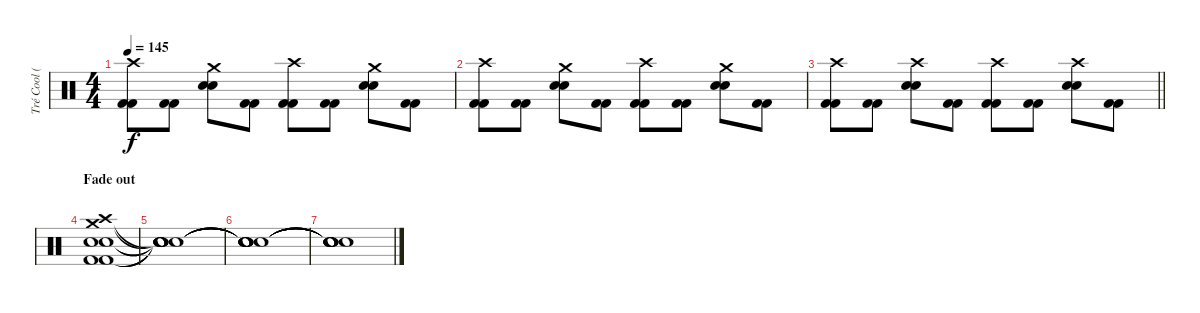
\track ("Tré Cool (Drums)" "Tré Cool (") {instrument percussion}
\staff {score}
\articulation defaults
\ts (4 4)
\tempo 145
\clef neutral
\ks c
("Kick (hit) 2" "Kick (hit) 2" "Crash high (hit)").8{dy f} ("Kick (hit) 2" "Kick (hit) 2").8 ("Snare (hit) 2" "Snare (hit) 2" "Crash medium (hit)").8 ("Kick (hit) 2" "Kick (hit) 2").8 ("Kick (hit) 2" "Kick (hit) 2" "Crash high (hit)").8 ("Kick (hit) 2" "Kick (hit) 2").8 ("Snare (hit) 2" "Snare (hit) 2" "Crash medium (hit)").8 ("Kick (hit) 2" "Kick (hit) 2").8 |
("Kick (hit) 2" "Kick (hit) 2" "Crash high (hit)").8 ("Kick (hit) 2" "Kick (hit) 2").8 ("Snare (hit) 2" "Snare (hit) 2" "Crash medium (hit)").8 ("Kick (hit) 2" "Kick (hit) 2").8 ("Kick (hit) 2" "Kick (hit) 2" "Crash high (hit)").8 ("Kick (hit) 2" "Kick (hit) 2").8 ("Snare (hit) 2" "Snare (hit) 2" "Crash medium (hit)").8 ("Kick (hit) 2" "Kick (hit) 2").8 |
\barLineRight lightlight
("Kick (hit) 2" "Kick (hit) 2" "Crash high (hit)").8 ("Kick (hit) 2" "Kick (hit) 2").8 ("Snare (hit) 2" "Snare (hit) 2" "Crash high (hit)").8 ("Kick (hit) 2" "Kick (hit) 2").8 ("Kick (hit) 2" "Kick (hit) 2" "Crash high (hit)").8 ("Kick (hit) 2" "Kick (hit) 2").8 ("Snare (hit) 2" "Snare (hit) 2" "Crash high (hit)").8 ("Kick (hit) 2" "Kick (hit) 2").8 |
\section ("" "Fade out")
("Kick (hit) 2" "Kick (hit) 2" "Snare (hit) 2" "Electric Snare (hit)" "Crash medium (hit)" "Crash high (hit)").1 |
("Snare (hit)"{t} "Snare (hit)"{t} "Snare (hit)"{t} "Snare (hit)"{t} "Snare (hit)"{t} "Snare (hit)"{t}).1 |
("Snare (hit)"{t} "Snare (hit)"{t} "Snare (hit)"{t} "Snare (hit)"{t} "Snare (hit)"{t} "Snare (hit)"{t}).1 |
("Snare (hit)"{t} "Snare (hit)"{t} "Snare (hit)"{t} "Snare (hit)"{t} "Snare (hit)"{t} "Snare (hit)"{t}).1
